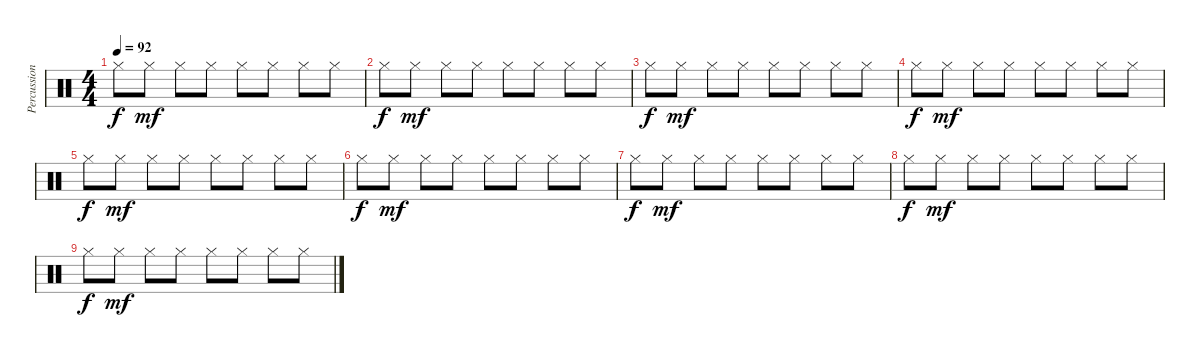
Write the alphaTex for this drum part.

\track ("Percussion" "Percussion") {instrument percussion}
\staff {score}
\articulation defaults
\ts (4 4)
\tempo 92
\clef neutral
\ks c "Hi-Hat (closed)".8{dy f} "Hi-Hat (closed)".8{dy mf} "Hi-Hat (closed)".8 "Hi-Hat (closed)".8 "Hi-Hat (closed)".8 "Hi-Hat (closed)".8 "Hi-Hat (closed)".8 "Hi-Hat (closed)".8
|
"Hi-Hat (closed)".8{dy f} "Hi-Hat (closed)".8{dy mf} "Hi-Hat (closed)".8 "Hi-Hat (closed)".8 "Hi-Hat (closed)".8 "Hi-Hat (closed)".8 "Hi-Hat (closed)".8 "Hi-Hat (closed)".8 |
"Hi-Hat (closed)".8{dy f} "Hi-Hat (closed)".8{dy mf} "Hi-Hat (closed)".8 "Hi-Hat (closed)".8 "Hi-Hat (closed)".8 "Hi-Hat (closed)".8 "Hi-Hat (closed)".8 "Hi-Hat (closed)".8 |
"Hi-Hat (closed)".8{dy f} "Hi-Hat (closed)".8{dy mf} "Hi-Hat (closed)".8 "Hi-Hat (closed)".8 "Hi-Hat (closed)".8 "Hi-Hat (closed)".8 "Hi-Hat (closed)".8 "Hi-Hat (closed)".8 |
"Hi-Hat (closed)".8{dy f} "Hi-Hat (closed)".8{dy mf} "Hi-Hat (closed)".8 "Hi-Hat (closed)".8 "Hi-Hat (closed)".8 "Hi-Hat (closed)".8 "Hi-Hat (closed)".8 "Hi-Hat (closed)".8 |
"Hi-Hat (closed)".8{dy f} "Hi-Hat (closed)".8{dy mf} "Hi-Hat (closed)".8 "Hi-Hat (closed)".8 "Hi-Hat (closed)".8 "Hi-Hat (closed)".8 "Hi-Hat (closed)".8 "Hi-Hat (closed)".8 |
"Hi-Hat (closed)".8{dy f} "Hi-Hat (closed)".8{dy mf} "Hi-Hat (closed)".8 "Hi-Hat (closed)".8 "Hi-Hat (closed)".8 "Hi-Hat (closed)".8 "Hi-Hat (closed)".8 "Hi-Hat (closed)".8 |
"Hi-Hat (closed)".8{dy f} "Hi-Hat (closed)".8{dy mf} "Hi-Hat (closed)".8 "Hi-Hat (closed)".8 "Hi-Hat (closed)".8 "Hi-Hat (closed)".8 "Hi-Hat (closed)".8 "Hi-Hat (closed)".8 |
"Hi-Hat (closed)".8{dy f} "Hi-Hat (closed)".8{dy mf} "Hi-Hat (closed)".8 "Hi-Hat (closed)".8 "Hi-Hat (closed)".8 "Hi-Hat (closed)".8 "Hi-Hat (closed)".8 "Hi-Hat (closed)".8
